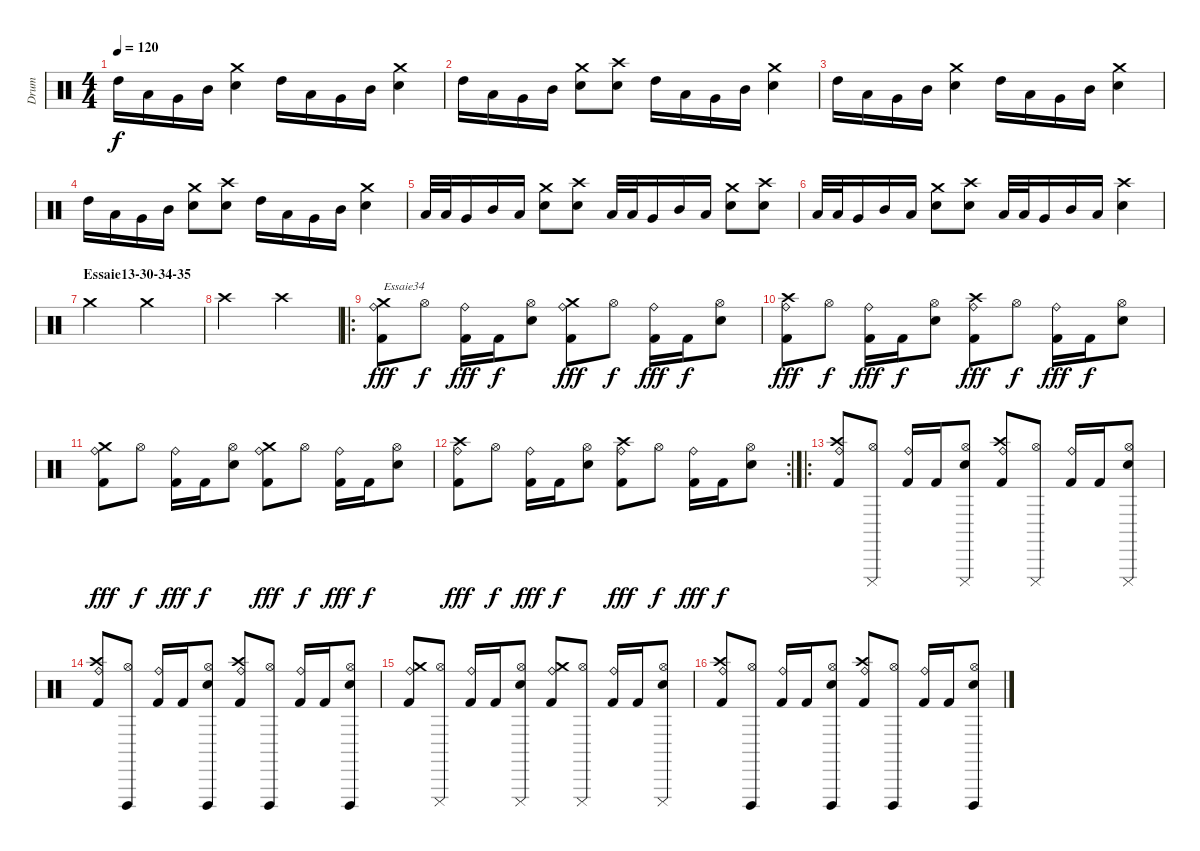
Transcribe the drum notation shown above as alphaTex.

\track ("Drum" "Drum") {instrument percussion}
\staff {score}
\articulation defaults
\ts (4 4)
\tempo 120
\clef neutral
\ks c "High Tom (hit)".16{dy f} "Low Tom (hit)".16 "Very Low Tom (hit)".16 "Mid Tom (hit)".16
("Crash medium (hit)" "Snare (hit) 2").4 "High Tom (hit)".16 "Low Tom (hit)".16 "Very Low Tom (hit)".16 "Mid Tom (hit)".16 ("Crash medium (hit)" "Snare (hit) 2").4 |
"High Tom (hit)".16 "Low Tom (hit)".16 "Very Low Tom (hit)".16 "Mid Tom (hit)".16 ("Crash medium (hit)" "Snare (hit) 2").8 ("Crash high (hit)" "Snare (hit) 2").8 "High Tom (hit)".16 "Low Tom (hit)".16 "Very Low Tom (hit)".16 "Mid Tom (hit)".16 ("Crash medium (hit)" "Snare (hit) 2").4 |
"High Tom (hit)".16 "Low Tom (hit)".16 "Very Low Tom (hit)".16 "Mid Tom (hit)".16 ("Crash medium (hit)" "Snare (hit) 2").4 "High Tom (hit)".16 "Low Tom (hit)".16 "Very Low Tom (hit)".16 "Mid Tom (hit)".16 ("Crash medium (hit)" "Snare (hit) 2").4 |
"High Tom (hit)".16 "Low Tom (hit)".16 "Very Low Tom (hit)".16 "Mid Tom (hit)".16 ("Crash medium (hit)" "Snare (hit) 2").8 ("Crash high (hit)" "Snare (hit) 2").8 "High Tom (hit)".16 "Low Tom (hit)".16 "Very Low Tom (hit)".16 "Mid Tom (hit)".16 ("Crash medium (hit)" "Snare (hit) 2").4 |
"Low Tom (hit)".32 "Low Tom (hit)".32 "Very Low Tom (hit)".16 "Mid Tom (hit)".16 "Low Tom (hit)".16 ("Crash medium (hit)" "Snare (hit) 2").8 ("Crash high (hit)" "Snare (hit) 2").8 "Low Tom (hit)".32 "Low Tom (hit)".32 "Very Low Tom (hit)".16 "Mid Tom (hit)".16 "Low Tom (hit)".16 ("Crash medium (hit)" "Snare (hit) 2").8 ("Crash high (hit)" "Snare (hit) 2").8 |
"Low Tom (hit)".32 "Low Tom (hit)".32 "Very Low Tom (hit)".16 "Mid Tom (hit)".16 "Low Tom (hit)".16 ("Crash medium (hit)" "Snare (hit) 2").8 ("Crash high (hit)" "Snare (hit) 2").8 "Low Tom (hit)".32 "Low Tom (hit)".32 "Very Low Tom (hit)".16 "Mid Tom (hit)".16 "Low Tom (hit)".16 ("Crash high (hit)" "Snare (hit) 2").4 |
\section ("" "Essaie13-30-34-35")
"Crash medium (hit)".2 "Crash medium (hit)".2 |
"Crash high (hit)".2 "Crash high (hit)".2 |
\ro
("Crash medium (hit)" "Ride (bell)" "Kick (hit) 2").8{txt "Essaie34" dy fff} "Hi-Hat (open)".8{dy f} ("Ride (bell)" "Kick (hit) 2").16{dy fff} "Kick (hit) 2".16{dy f} ("Hi-Hat (open)" "Snare (hit) 2").8 ("Crash medium (hit)" "Ride (bell)" "Kick (hit) 2").8{dy fff} "Hi-Hat (open)".8{dy f} ("Ride (bell)" "Kick (hit) 2").16{dy fff} "Kick (hit) 2".16{dy f} ("Hi-Hat (open)" "Snare (hit) 2").8 |
("Crash high (hit)" "Ride (bell)" "Kick (hit) 2").8{dy fff} "Hi-Hat (open)".8{dy f} ("Ride (bell)" "Kick (hit) 2").16{dy fff} "Kick (hit) 2".16{dy f} ("Hi-Hat (open)" "Snare (hit) 2").8 ("Crash high (hit)" "Ride (bell)" "Kick (hit) 2").8{dy fff} "Hi-Hat (open)".8{dy f} ("Ride (bell)" "Kick (hit) 2").16{dy fff} "Kick (hit) 2".16{dy f} ("Hi-Hat (open)" "Snare (hit) 2").8 |
("Crash medium (hit)" "Ride (bell)" "Kick (hit) 2").8{dy fff} "Hi-Hat (open)".8{dy f} ("Ride (bell)" "Kick (hit) 2").16{dy fff} "Kick (hit) 2".16{dy f} ("Hi-Hat (open)" "Snare (hit) 2").8 ("Crash medium (hit)" "Ride (bell)" "Kick (hit) 2").8{dy fff} "Hi-Hat (open)".8{dy f} ("Ride (bell)" "Kick (hit) 2").16{dy fff} "Kick (hit) 2".16{dy f} ("Hi-Hat (open)" "Snare (hit) 2").8 |
\rc 2
("Crash high (hit)" "Ride (bell)" "Kick (hit) 2").8{dy fff} "Hi-Hat (open)".8{dy f} ("Ride (bell)" "Kick (hit) 2").16{dy fff} "Kick (hit) 2".16{dy f} ("Hi-Hat (open)" "Snare (hit) 2").8 ("Crash high (hit)" "Ride (bell)" "Kick (hit) 2").8{dy fff} "Hi-Hat (open)".8{dy f} ("Ride (bell)" "Kick (hit) 2").16{dy fff} "Kick (hit) 2".16{dy f} ("Hi-Hat (open)" "Snare (hit) 2").8 |
\ro
("Crash high (hit)" "Ride (bell)" "Kick (hit) 2").8 ("Hi-Hat (open)" "Cuica (mute)").8 ("Ride (bell)" "Kick (hit) 2").16 "Kick (hit) 2".16 ("Hi-Hat (open)" "Snare (hit) 2" "Cuica (mute)").8 ("Crash high (hit)" "Ride (bell)" "Kick (hit) 2").8 ("Hi-Hat (open)" "Cuica (mute)").8 ("Ride (bell)" "Kick (hit) 2").16 "Kick (hit) 2".16 ("Hi-Hat (open)" "Snare (hit) 2" "Cuica (mute)").8 |
("Crash high (hit)" "Ride (bell)" "Kick (hit) 2").8 ("Hi-Hat (open)" "Cuica (open)").8 ("Ride (bell)" "Kick (hit) 2").16 "Kick (hit) 2".16 ("Hi-Hat (open)" "Snare (hit) 2" "Cuica (open)").8 ("Crash high (hit)" "Ride (bell)" "Kick (hit) 2").8 ("Hi-Hat (open)" "Cuica (open)").8 ("Ride (bell)" "Kick (hit) 2").16 "Kick (hit) 2".16 ("Hi-Hat (open)" "Snare (hit) 2" "Cuica (open)").8 |
("Crash medium (hit)" "Ride (bell)" "Kick (hit) 2").8 ("Hi-Hat (open)" "Cuica (mute)").8 ("Ride (bell)" "Kick (hit) 2").16 "Kick (hit) 2".16 ("Hi-Hat (open)" "Snare (hit) 2" "Cuica (mute)").8 ("Crash medium (hit)" "Ride (bell)" "Kick (hit) 2").8 ("Hi-Hat (open)" "Cuica (mute)").8 ("Ride (bell)" "Kick (hit) 2").16 "Kick (hit) 2".16 ("Hi-Hat (open)" "Snare (hit) 2" "Cuica (mute)").8 |
("Crash high (hit)" "Ride (bell)" "Kick (hit) 2").8 ("Hi-Hat (open)" "Cuica (open)").8 ("Ride (bell)" "Kick (hit) 2").16 "Kick (hit) 2".16 ("Hi-Hat (open)" "Snare (hit) 2" "Cuica (open)").8 ("Crash high (hit)" "Ride (bell)" "Kick (hit) 2").8 ("Hi-Hat (open)" "Cuica (open)").8 ("Ride (bell)" "Kick (hit) 2").16 "Kick (hit) 2".16 ("Hi-Hat (open)" "Snare (hit) 2" "Cuica (open)").8
